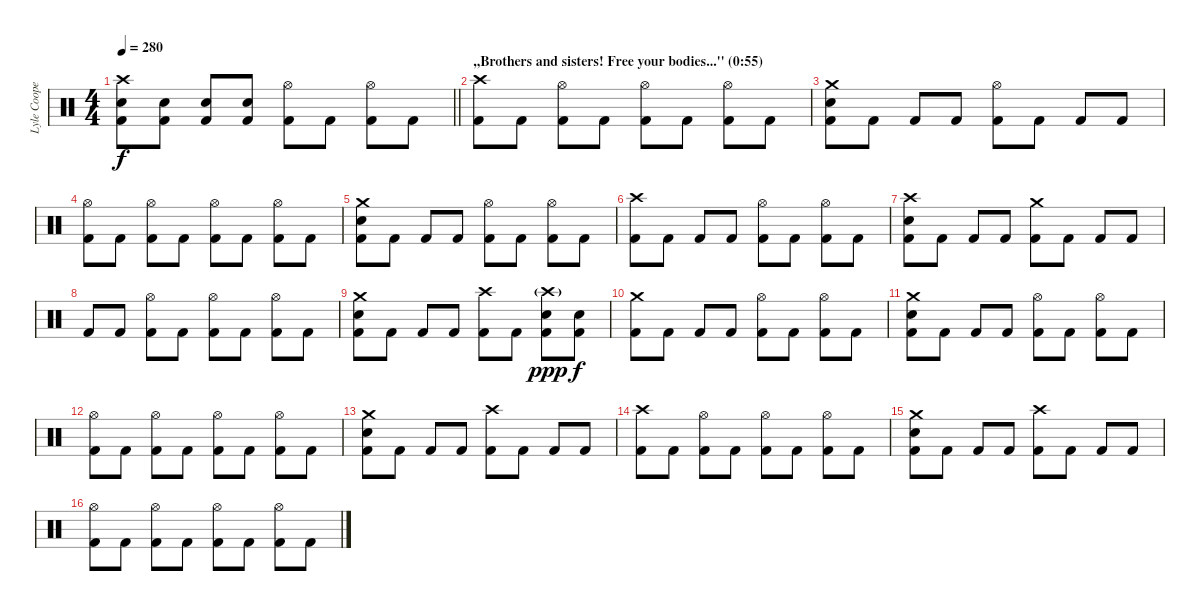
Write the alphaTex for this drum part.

\track ("Lyle Cooper [Drums]" "Lyle Coope") {instrument percussion}
\staff {score}
\articulation defaults
\ts (4 4)
\tempo 280
\clef neutral
\barLineRight lightlight
\ks c
("Crash high (hit)" "Electric Snare (hit)" "Kick (hit) 2").8{dy f} ("Electric Snare (hit)" "Kick (hit) 2").8 ("Electric Snare (hit)" "Kick (hit) 2").8 ("Electric Snare (hit)" "Kick (hit) 2").8 ("Hi-Hat (open)" "Kick (hit) 2").8 "Kick (hit) 2".8 ("Hi-Hat (open)" "Kick (hit) 2").8 "Kick (hit) 2".8 |
\section ("" ",,Brothers and sisters! Free your bodies...'' (0:55)")
("Crash high (hit)" "Kick (hit) 2").8 "Kick (hit) 2".8 ("Hi-Hat (open)" "Kick (hit) 2").8 "Kick (hit) 2".8 ("Hi-Hat (open)" "Kick (hit) 2").8 "Kick (hit) 2".8 ("Hi-Hat (open)" "Kick (hit) 2").8 "Kick (hit) 2".8 |
("Crash medium (hit)" "Electric Snare (hit)" "Kick (hit) 2").8 "Kick (hit) 2".8 "Kick (hit) 2".8 "Kick (hit) 2".8 ("Hi-Hat (open)" "Kick (hit) 2").8 "Kick (hit) 2".8 "Kick (hit) 2".8 "Kick (hit) 2".8 |
("Hi-Hat (open)" "Kick (hit) 2").8 "Kick (hit) 2".8 ("Hi-Hat (open)" "Kick (hit) 2").8 "Kick (hit) 2".8 ("Hi-Hat (open)" "Kick (hit) 2").8 "Kick (hit) 2".8 ("Hi-Hat (open)" "Kick (hit) 2").8 "Kick (hit) 2".8 |
("Crash medium (hit)" "Electric Snare (hit)" "Kick (hit) 2").8 "Kick (hit) 2".8 "Kick (hit) 2".8 "Kick (hit) 2".8 ("Hi-Hat (open)" "Kick (hit) 2").8 "Kick (hit) 2".8 ("Hi-Hat (open)" "Kick (hit) 2").8 "Kick (hit) 2".8 |
("Crash high (hit)" "Kick (hit) 2").8 "Kick (hit) 2".8 "Kick (hit) 2".8 "Kick (hit) 2".8 ("Hi-Hat (open)" "Kick (hit) 2").8 "Kick (hit) 2".8 ("Hi-Hat (open)" "Kick (hit) 2").8 "Kick (hit) 2".8 |
("Crash high (hit)" "Electric Snare (hit)" "Kick (hit) 2").8 "Kick (hit) 2".8 "Kick (hit) 2".8 "Kick (hit) 2".8 ("Crash medium (hit)" "Kick (hit) 2").8 "Kick (hit) 2".8 "Kick (hit) 2".8 "Kick (hit) 2".8 |
"Kick (hit) 2".8 "Kick (hit) 2".8 ("Hi-Hat (open)" "Kick (hit) 2").8 "Kick (hit) 2".8 ("Hi-Hat (open)" "Kick (hit) 2").8 "Kick (hit) 2".8 ("Hi-Hat (open)" "Kick (hit) 2").8 "Kick (hit) 2".8 |
("Crash medium (hit)" "Electric Snare (hit)" "Kick (hit) 2").8 "Kick (hit) 2".8 "Kick (hit) 2".8 "Kick (hit) 2".8 ("Crash high (hit)" "Kick (hit) 2").8 "Kick (hit) 2".8 ("Crash high (hit)"{g} "Electric Snare (hit)" "Kick (hit) 2").8{dy ppp} ("Electric Snare (hit)" "Kick (hit) 2").8{dy f} |
("Crash medium (hit)" "Kick (hit) 2").8 "Kick (hit) 2".8 "Kick (hit) 2".8 "Kick (hit) 2".8 ("Hi-Hat (open)" "Kick (hit) 2").8 "Kick (hit) 2".8 ("Hi-Hat (open)" "Kick (hit) 2").8 "Kick (hit) 2".8 |
("Crash medium (hit)" "Electric Snare (hit)" "Kick (hit) 2").8 "Kick (hit) 2".8 "Kick (hit) 2".8 "Kick (hit) 2".8 ("Hi-Hat (open)" "Kick (hit) 2").8 "Kick (hit) 2".8 ("Hi-Hat (open)" "Kick (hit) 2").8 "Kick (hit) 2".8 |
("Hi-Hat (open)" "Kick (hit) 2").8 "Kick (hit) 2".8 ("Hi-Hat (open)" "Kick (hit) 2").8 "Kick (hit) 2".8 ("Hi-Hat (open)" "Kick (hit) 2").8 "Kick (hit) 2".8 ("Hi-Hat (open)" "Kick (hit) 2").8 "Kick (hit) 2".8 |
("Crash medium (hit)" "Electric Snare (hit)" "Kick (hit) 2").8 "Kick (hit) 2".8 "Kick (hit) 2".8 "Kick (hit) 2".8 ("Crash high (hit)" "Kick (hit) 2").8 "Kick (hit) 2".8 "Kick (hit) 2".8 "Kick (hit) 2".8 |
("Crash high (hit)" "Kick (hit) 2").8 "Kick (hit) 2".8 ("Hi-Hat (open)" "Kick (hit) 2").8 "Kick (hit) 2".8 ("Hi-Hat (open)" "Kick (hit) 2").8 "Kick (hit) 2".8 ("Hi-Hat (open)" "Kick (hit) 2").8 "Kick (hit) 2".8 |
("Crash medium (hit)" "Electric Snare (hit)" "Kick (hit) 2").8 "Kick (hit) 2".8 "Kick (hit) 2".8 "Kick (hit) 2".8 ("Crash high (hit)" "Kick (hit) 2").8 "Kick (hit) 2".8 "Kick (hit) 2".8 "Kick (hit) 2".8 |
("Hi-Hat (open)" "Kick (hit) 2").8 "Kick (hit) 2".8 ("Hi-Hat (open)" "Kick (hit) 2").8 "Kick (hit) 2".8 ("Hi-Hat (open)" "Kick (hit) 2").8 "Kick (hit) 2".8 ("Hi-Hat (open)" "Kick (hit) 2").8 "Kick (hit) 2".8
